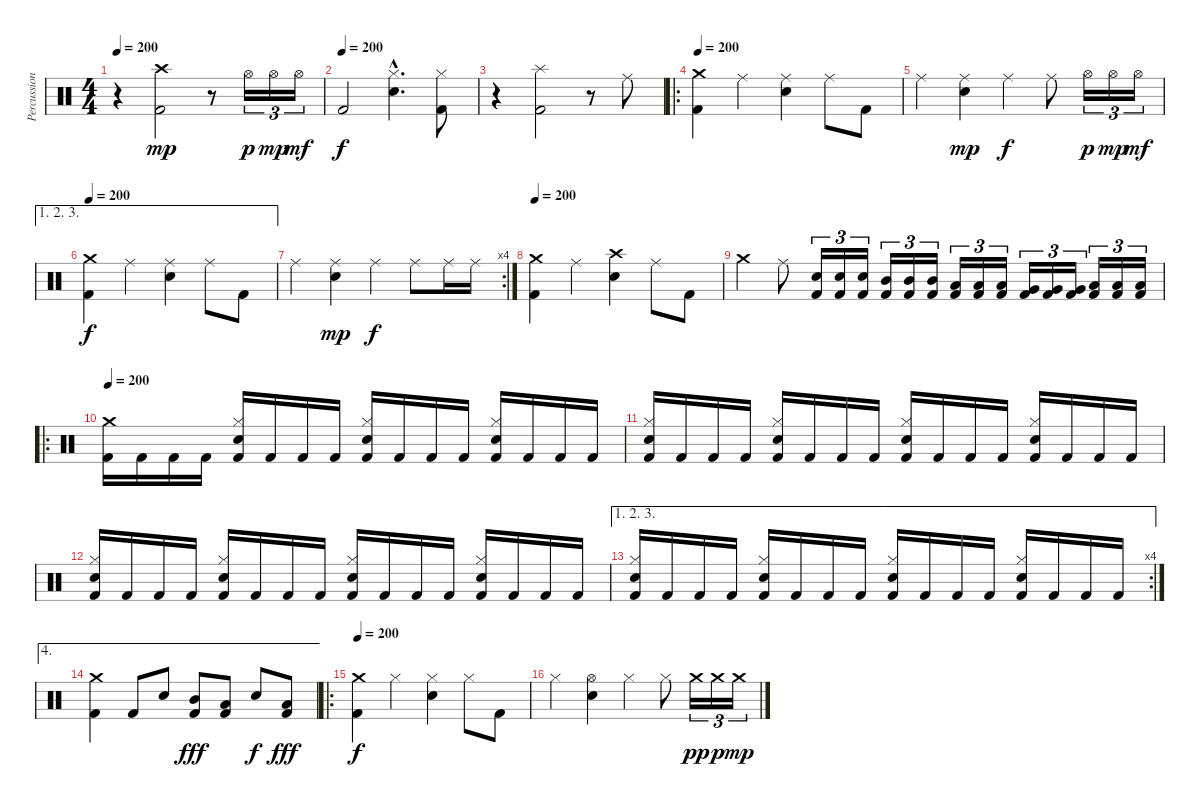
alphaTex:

\track ("Percussions" "Percussion") {instrument percussion}
\staff {score}
\articulation defaults
\ts (4 4)
\tempo 200
\clef neutral
\ks c
r.4{dy f} ("Crash high (hit)" "Kick (hit) 2").2{dy mp} r.8 "Hi-Hat (open)".16{tu (3 2) dy p} "Hi-Hat (open)".16{tu (3 2) dy mp} "Hi-Hat (open)".16{tu (3 2) dy mf} |
\tempo (200)
"Kick (hit) 2".2{dy f} ("Hi-Hat (closed)"{hac} "Electric Snare (hit)"{hac}).4{d} ("Hi-Hat (closed)" "Kick (hit) 2").8 |
r.4 ("Splash (hit)" "Kick (hit) 2").2 r.8 "Ride (middle)".8 |
\ro
\tempo 200
("Crash medium (hit)" "Kick (hit) 2").4 "Ride (middle)".4 ("Ride (middle)" "Electric Snare (hit)").4 "Ride (middle)".8 "Kick (hit) 2".8 |
"Ride (middle)".4 ("Ride (middle)" "Electric Snare (hit)").4{dy mp} "Ride (middle)".4{dy f} "Ride (middle)".8 "Hi-Hat (open)".16{tu (3 2) dy p} "Hi-Hat (open)".16{tu (3 2) dy mp} "Hi-Hat (open)".16{tu (3 2) dy mf} |
\ae (1 2 3)
\tempo 200
("Crash medium (hit)" "Kick (hit) 2").4{dy f} "Ride (middle)".4 ("Ride (middle)" "Electric Snare (hit)").4 "Ride (middle)".8 "Kick (hit) 2".8 |
\rc 4 "Ride (middle)".4
("Ride (middle)" "Electric Snare (hit)").4{dy mp} "Ride (middle)".4{dy f} "Ride (middle)".8 "Ride (middle)".16 "Ride (middle)".16 |
\tempo 200
("Crash medium (hit)" "Kick (hit) 2").4 "Ride (middle)".4 ("Crash high (hit)" "Electric Snare (hit)").4 "Ride (middle)".8 "Kick (hit) 2".8 |
"Crash medium (hit)".4 "Ride (middle)".8 ("Electric Snare (hit)" "Kick (hit) 2").16{tu (3 2)} ("Electric Snare (hit)" "Kick (hit) 2").16{tu (3 2)} ("Electric Snare (hit)" "Kick (hit) 2").16{tu (3 2)} ("Mid Tom (hit)" "Kick (hit) 2").16{tu (3 2)} ("Mid Tom (hit)" "Kick (hit) 2").16{tu (3 2)} ("Mid Tom (hit)" "Kick (hit) 2").16{tu (3 2)} ("Low Tom (hit)" "Kick (hit) 2").16{tu (3 2)} ("Low Tom (hit)" "Kick (hit) 2").16{tu (3 2)} ("Low Tom (hit)" "Kick (hit) 2").16{tu (3 2)} ("Very Low Tom (hit)" "Kick (hit) 2").16{tu (3 2)} ("Very Low Tom (hit)" "Kick (hit) 2").16{tu (3 2)} ("Very Low Tom (hit)" "Kick (hit) 2").16{tu (3 2)} ("Low Floor Tom (hit)" "Kick (hit) 2").16{tu (3 2)} ("Low Floor Tom (hit)" "Kick (hit) 2").16{tu (3 2)} ("Low Floor Tom (hit)" "Kick (hit) 2").16{tu (3 2)} |
\ro
\tempo 200
("Crash medium (hit)" "Kick (hit) 2").16 "Kick (hit) 2".16 "Kick (hit) 2".16 "Kick (hit) 2".16 ("Hi-Hat (closed)" "Electric Snare (hit)" "Kick (hit) 2").16 "Kick (hit) 2".16 "Kick (hit) 2".16 "Kick (hit) 2".16 ("Hi-Hat (closed)" "Electric Snare (hit)" "Kick (hit) 2").16 "Kick (hit) 2".16 "Kick (hit) 2".16 "Kick (hit) 2".16 ("Hi-Hat (closed)" "Electric Snare (hit)" "Kick (hit) 2").16 "Kick (hit) 2".16 "Kick (hit) 2".16 "Kick (hit) 2".16 |
("Hi-Hat (closed)" "Electric Snare (hit)" "Kick (hit) 2").16 "Kick (hit) 2".16 "Kick (hit) 2".16 "Kick (hit) 2".16 ("Hi-Hat (closed)" "Electric Snare (hit)" "Kick (hit) 2").16 "Kick (hit) 2".16 "Kick (hit) 2".16 "Kick (hit) 2".16 ("Hi-Hat (closed)" "Electric Snare (hit)" "Kick (hit) 2").16 "Kick (hit) 2".16 "Kick (hit) 2".16 "Kick (hit) 2".16 ("Hi-Hat (closed)" "Electric Snare (hit)" "Kick (hit) 2").16 "Kick (hit) 2".16 "Kick (hit) 2".16 "Kick (hit) 2".16 |
("Hi-Hat (closed)" "Electric Snare (hit)" "Kick (hit) 2").16 "Kick (hit) 2".16 "Kick (hit) 2".16 "Kick (hit) 2".16 ("Hi-Hat (closed)" "Electric Snare (hit)" "Kick (hit) 2").16 "Kick (hit) 2".16 "Kick (hit) 2".16 "Kick (hit) 2".16 ("Hi-Hat (closed)" "Electric Snare (hit)" "Kick (hit) 2").16 "Kick (hit) 2".16 "Kick (hit) 2".16 "Kick (hit) 2".16 ("Hi-Hat (closed)" "Electric Snare (hit)" "Kick (hit) 2").16 "Kick (hit) 2".16 "Kick (hit) 2".16 "Kick (hit) 2".16 |
\ae (1 2 3)
\rc 4
("Hi-Hat (closed)" "Electric Snare (hit)" "Kick (hit) 2").16 "Kick (hit) 2".16 "Kick (hit) 2".16 "Kick (hit) 2".16 ("Hi-Hat (closed)" "Electric Snare (hit)" "Kick (hit) 2").16 "Kick (hit) 2".16 "Kick (hit) 2".16 "Kick (hit) 2".16 ("Hi-Hat (closed)" "Electric Snare (hit)" "Kick (hit) 2").16 "Kick (hit) 2".16 "Kick (hit) 2".16 "Kick (hit) 2".16 ("Hi-Hat (closed)" "Electric Snare (hit)" "Kick (hit) 2").16 "Kick (hit) 2".16 "Kick (hit) 2".16 "Kick (hit) 2".16 |
\ae 4
("Crash medium (hit)" "Kick (hit) 2").4 "Kick (hit) 2".8 "Electric Snare (hit)".8 ("Mid Tom (hit)" "Kick (hit) 2").8{dy fff} ("Low Tom (hit)" "Kick (hit) 2").8 "Electric Snare (hit)".8{dy f} ("Low Floor Tom (hit)" "Kick (hit) 2").8{dy fff} |
\ro
\tempo 200
("Crash medium (hit)" "Kick (hit) 2").4{dy f} "Hi-Hat (closed)".4 ("Hi-Hat (closed)" "Electric Snare (hit)").4 "Hi-Hat (closed)".8 "Kick (hit) 2".8 |
"Hi-Hat (closed)".4 ("Hi-Hat (open)" "Electric Snare (hit)").4 "Hi-Hat (closed)".4 "Hi-Hat (closed)".8 "Crash medium (hit)".16{tu (3 2) dy pp} "Crash medium (hit)".16{tu (3 2) dy p} "Crash medium (hit)".16{tu (3 2) dy mp}
